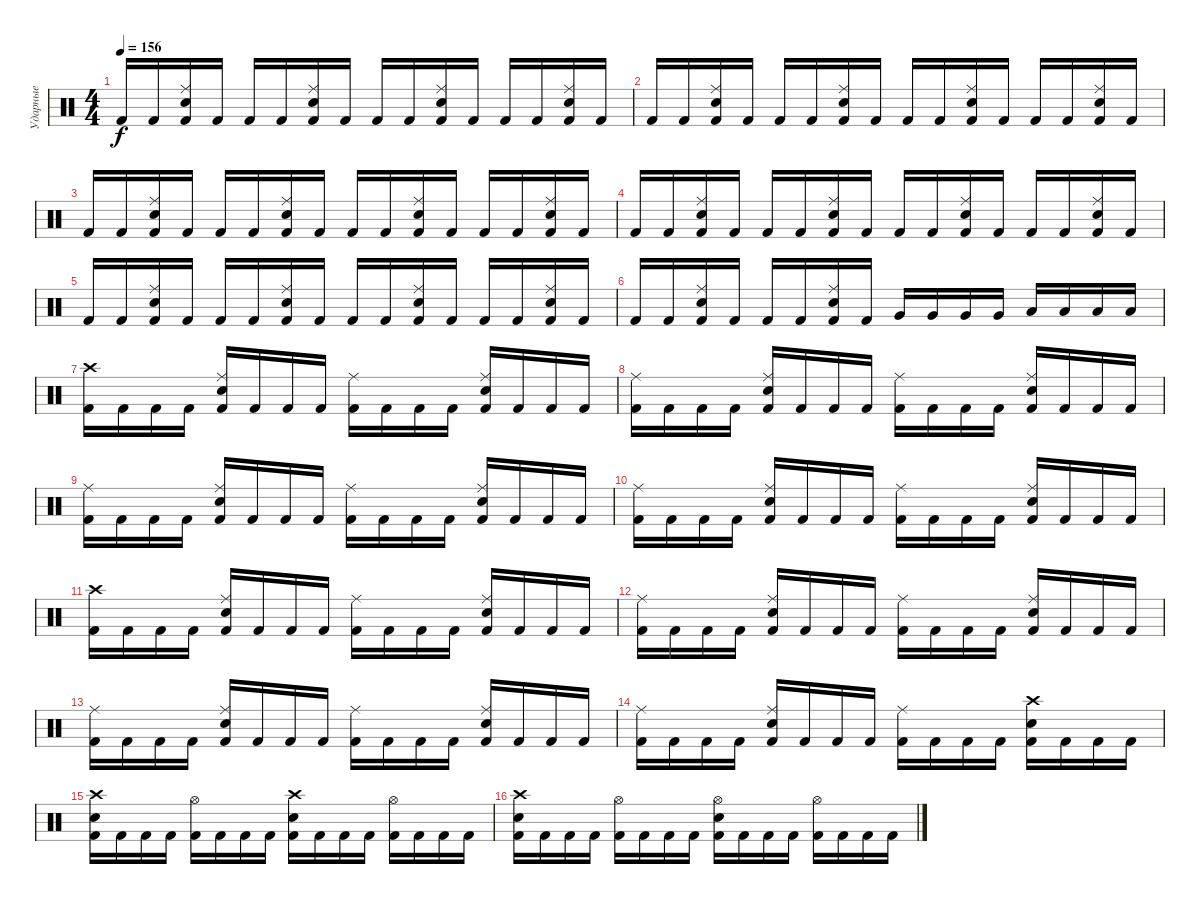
\track ("Ударные" "Ударные") {instrument percussion}
\staff {score}
\articulation defaults
\ts (4 4)
\tempo 156
\clef neutral
\ks c "Kick (hit) 2".16{dy f} "Kick (hit) 2".16
("Ride (middle)" "Electric Snare (hit)" "Kick (hit) 2").16 "Kick (hit) 2".16 "Kick (hit) 2".16 "Kick (hit) 2".16 ("Ride (middle)" "Electric Snare (hit)" "Kick (hit) 2").16 "Kick (hit) 2".16 "Kick (hit) 2".16 "Kick (hit) 2".16 ("Ride (middle)" "Electric Snare (hit)" "Kick (hit) 2").16 "Kick (hit) 2".16 "Kick (hit) 2".16 "Kick (hit) 2".16 ("Ride (middle)" "Electric Snare (hit)" "Kick (hit) 2").16 "Kick (hit) 2".16 |
"Kick (hit) 2".16 "Kick (hit) 2".16 ("Ride (middle)" "Electric Snare (hit)" "Kick (hit) 2").16 "Kick (hit) 2".16 "Kick (hit) 2".16 "Kick (hit) 2".16 ("Ride (middle)" "Electric Snare (hit)" "Kick (hit) 2").16 "Kick (hit) 2".16 "Kick (hit) 2".16 "Kick (hit) 2".16 ("Ride (middle)" "Electric Snare (hit)" "Kick (hit) 2").16 "Kick (hit) 2".16 "Kick (hit) 2".16 "Kick (hit) 2".16 ("Ride (middle)" "Electric Snare (hit)" "Kick (hit) 2").16 "Kick (hit) 2".16 |
"Kick (hit) 2".16 "Kick (hit) 2".16 ("Ride (middle)" "Electric Snare (hit)" "Kick (hit) 2").16 "Kick (hit) 2".16 "Kick (hit) 2".16 "Kick (hit) 2".16 ("Ride (middle)" "Electric Snare (hit)" "Kick (hit) 2").16 "Kick (hit) 2".16 "Kick (hit) 2".16 "Kick (hit) 2".16 ("Ride (middle)" "Electric Snare (hit)" "Kick (hit) 2").16 "Kick (hit) 2".16 "Kick (hit) 2".16 "Kick (hit) 2".16 ("Ride (middle)" "Electric Snare (hit)" "Kick (hit) 2").16 "Kick (hit) 2".16 |
"Kick (hit) 2".16 "Kick (hit) 2".16 ("Ride (middle)" "Electric Snare (hit)" "Kick (hit) 2").16 "Kick (hit) 2".16 "Kick (hit) 2".16 "Kick (hit) 2".16 ("Ride (middle)" "Electric Snare (hit)" "Kick (hit) 2").16 "Kick (hit) 2".16 "Kick (hit) 2".16 "Kick (hit) 2".16 ("Ride (middle)" "Electric Snare (hit)" "Kick (hit) 2").16 "Kick (hit) 2".16 "Kick (hit) 2".16 "Kick (hit) 2".16 ("Ride (middle)" "Electric Snare (hit)" "Kick (hit) 2").16 "Kick (hit) 2".16 |
"Kick (hit) 2".16 "Kick (hit) 2".16 ("Ride (middle)" "Electric Snare (hit)" "Kick (hit) 2").16 "Kick (hit) 2".16 "Kick (hit) 2".16 "Kick (hit) 2".16 ("Ride (middle)" "Electric Snare (hit)" "Kick (hit) 2").16 "Kick (hit) 2".16 "Kick (hit) 2".16 "Kick (hit) 2".16 ("Ride (middle)" "Electric Snare (hit)" "Kick (hit) 2").16 "Kick (hit) 2".16 "Kick (hit) 2".16 "Kick (hit) 2".16 ("Ride (middle)" "Electric Snare (hit)" "Kick (hit) 2").16 "Kick (hit) 2".16 |
"Kick (hit) 2".16 "Kick (hit) 2".16 ("Ride (middle)" "Electric Snare (hit)" "Kick (hit) 2").16 "Kick (hit) 2".16 "Kick (hit) 2".16 "Kick (hit) 2".16 ("Ride (middle)" "Electric Snare (hit)" "Kick (hit) 2").16 "Kick (hit) 2".16 "Very Low Tom (hit)".16 "Very Low Tom (hit)".16 "Very Low Tom (hit)".16 "Very Low Tom (hit)".16 "Low Floor Tom (hit)".16 "Low Floor Tom (hit)".16 "Low Floor Tom (hit)".16 "Low Floor Tom (hit)".16 |
("Crash high (hit)" "Kick (hit) 2").16 "Kick (hit) 2".16 "Kick (hit) 2".16 "Kick (hit) 2".16 ("Ride (middle)" "Electric Snare (hit)" "Kick (hit) 2").16 "Kick (hit) 2".16 "Kick (hit) 2".16 "Kick (hit) 2".16 ("Ride (middle)" "Kick (hit) 2").16 "Kick (hit) 2".16 "Kick (hit) 2".16 "Kick (hit) 2".16 ("Ride (middle)" "Electric Snare (hit)" "Kick (hit) 2").16 "Kick (hit) 2".16 "Kick (hit) 2".16 "Kick (hit) 2".16 |
("Ride (middle)" "Kick (hit) 2").16 "Kick (hit) 2".16 "Kick (hit) 2".16 "Kick (hit) 2".16 ("Ride (middle)" "Electric Snare (hit)" "Kick (hit) 2").16 "Kick (hit) 2".16 "Kick (hit) 2".16 "Kick (hit) 2".16 ("Ride (middle)" "Kick (hit) 2").16 "Kick (hit) 2".16 "Kick (hit) 2".16 "Kick (hit) 2".16 ("Ride (middle)" "Electric Snare (hit)" "Kick (hit) 2").16 "Kick (hit) 2".16 "Kick (hit) 2".16 "Kick (hit) 2".16 |
("Ride (middle)" "Kick (hit) 2").16 "Kick (hit) 2".16 "Kick (hit) 2".16 "Kick (hit) 2".16 ("Ride (middle)" "Electric Snare (hit)" "Kick (hit) 2").16 "Kick (hit) 2".16 "Kick (hit) 2".16 "Kick (hit) 2".16 ("Ride (middle)" "Kick (hit) 2").16 "Kick (hit) 2".16 "Kick (hit) 2".16 "Kick (hit) 2".16 ("Ride (middle)" "Electric Snare (hit)" "Kick (hit) 2").16 "Kick (hit) 2".16 "Kick (hit) 2".16 "Kick (hit) 2".16 |
("Ride (middle)" "Kick (hit) 2").16 "Kick (hit) 2".16 "Kick (hit) 2".16 "Kick (hit) 2".16 ("Ride (middle)" "Electric Snare (hit)" "Kick (hit) 2").16 "Kick (hit) 2".16 "Kick (hit) 2".16 "Kick (hit) 2".16 ("Ride (middle)" "Kick (hit) 2").16 "Kick (hit) 2".16 "Kick (hit) 2".16 "Kick (hit) 2".16 ("Ride (middle)" "Electric Snare (hit)" "Kick (hit) 2").16 "Kick (hit) 2".16 "Kick (hit) 2".16 "Kick (hit) 2".16 |
("Crash high (hit)" "Kick (hit) 2").16 "Kick (hit) 2".16 "Kick (hit) 2".16 "Kick (hit) 2".16 ("Ride (middle)" "Electric Snare (hit)" "Kick (hit) 2").16 "Kick (hit) 2".16 "Kick (hit) 2".16 "Kick (hit) 2".16 ("Ride (middle)" "Kick (hit) 2").16 "Kick (hit) 2".16 "Kick (hit) 2".16 "Kick (hit) 2".16 ("Ride (middle)" "Electric Snare (hit)" "Kick (hit) 2").16 "Kick (hit) 2".16 "Kick (hit) 2".16 "Kick (hit) 2".16 |
("Ride (middle)" "Kick (hit) 2").16 "Kick (hit) 2".16 "Kick (hit) 2".16 "Kick (hit) 2".16 ("Ride (middle)" "Electric Snare (hit)" "Kick (hit) 2").16 "Kick (hit) 2".16 "Kick (hit) 2".16 "Kick (hit) 2".16 ("Ride (middle)" "Kick (hit) 2").16 "Kick (hit) 2".16 "Kick (hit) 2".16 "Kick (hit) 2".16 ("Ride (middle)" "Electric Snare (hit)" "Kick (hit) 2").16 "Kick (hit) 2".16 "Kick (hit) 2".16 "Kick (hit) 2".16 |
("Ride (middle)" "Kick (hit) 2").16 "Kick (hit) 2".16 "Kick (hit) 2".16 "Kick (hit) 2".16 ("Ride (middle)" "Electric Snare (hit)" "Kick (hit) 2").16 "Kick (hit) 2".16 "Kick (hit) 2".16 "Kick (hit) 2".16 ("Ride (middle)" "Kick (hit) 2").16 "Kick (hit) 2".16 "Kick (hit) 2".16 "Kick (hit) 2".16 ("Ride (middle)" "Electric Snare (hit)" "Kick (hit) 2").16 "Kick (hit) 2".16 "Kick (hit) 2".16 "Kick (hit) 2".16 |
("Ride (middle)" "Kick (hit) 2").16 "Kick (hit) 2".16 "Kick (hit) 2".16 "Kick (hit) 2".16 ("Ride (middle)" "Electric Snare (hit)" "Kick (hit) 2").16 "Kick (hit) 2".16 "Kick (hit) 2".16 "Kick (hit) 2".16 ("Ride (middle)" "Kick (hit) 2").16 "Kick (hit) 2".16 "Kick (hit) 2".16 "Kick (hit) 2".16 ("Crash high (hit)" "Electric Snare (hit)" "Kick (hit) 2").16 "Kick (hit) 2".16 "Kick (hit) 2".16 "Kick (hit) 2".16 |
("Crash high (hit)" "Electric Snare (hit)" "Kick (hit) 2").16 "Kick (hit) 2".16 "Kick (hit) 2".16 "Kick (hit) 2".16 ("Hi-Hat (open)" "Kick (hit) 2").16 "Kick (hit) 2".16 "Kick (hit) 2".16 "Kick (hit) 2".16 ("Crash high (hit)" "Electric Snare (hit)" "Kick (hit) 2").16 "Kick (hit) 2".16 "Kick (hit) 2".16 "Kick (hit) 2".16 ("Hi-Hat (open)" "Kick (hit) 2").16 "Kick (hit) 2".16 "Kick (hit) 2".16 "Kick (hit) 2".16 |
("Crash high (hit)" "Electric Snare (hit)" "Kick (hit) 2").16 "Kick (hit) 2".16 "Kick (hit) 2".16 "Kick (hit) 2".16 ("Hi-Hat (open)" "Kick (hit) 2").16 "Kick (hit) 2".16 "Kick (hit) 2".16 "Kick (hit) 2".16 ("Hi-Hat (open)" "Electric Snare (hit)" "Kick (hit) 2").16 "Kick (hit) 2".16 "Kick (hit) 2".16 "Kick (hit) 2".16 ("Hi-Hat (open)" "Kick (hit) 2").16 "Kick (hit) 2".16 "Kick (hit) 2".16 "Kick (hit) 2".16
